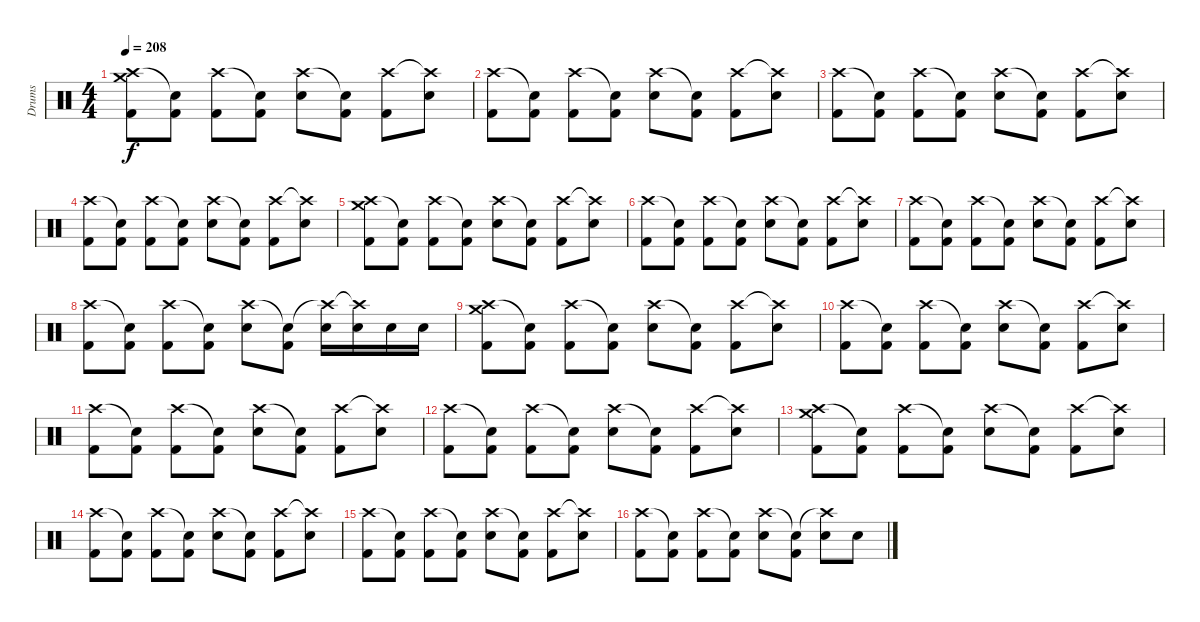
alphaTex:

\track ("Drums" "Drums") {instrument percussion}
\staff {score}
\articulation defaults
\ts (4 4)
\tempo 208
\clef neutral
\ks c
("Crash high (hit)" "Crash medium (hit)" "Kick (hit) 2").8{dy f} ("Snare (hit)"{t} "Kick (hit) 2").8 ("Crash high (hit)" "Kick (hit) 2").8 ("Snare (hit)"{t} "Kick (hit) 2").8 ("Crash high (hit)" "Electric Snare (hit)").8 ("Snare (hit)"{t} "Kick (hit) 2").8 ("Crash high (hit)" "Kick (hit) 2").8 ("Crash high (hit)"{t} "Electric Snare (hit)").8 |
("Crash high (hit)" "Kick (hit) 2").8 ("Snare (hit)"{t} "Kick (hit) 2").8 ("Crash high (hit)" "Kick (hit) 2").8 ("Snare (hit)"{t} "Kick (hit) 2").8 ("Crash high (hit)" "Electric Snare (hit)").8 ("Snare (hit)"{t} "Kick (hit) 2").8 ("Crash high (hit)" "Kick (hit) 2").8 ("Crash high (hit)"{t} "Electric Snare (hit)").8 |
("Crash high (hit)" "Kick (hit) 2").8 ("Snare (hit)"{t} "Kick (hit) 2").8 ("Crash high (hit)" "Kick (hit) 2").8 ("Snare (hit)"{t} "Kick (hit) 2").8 ("Crash high (hit)" "Electric Snare (hit)").8 ("Snare (hit)"{t} "Kick (hit) 2").8 ("Crash high (hit)" "Kick (hit) 2").8 ("Crash high (hit)"{t} "Electric Snare (hit)").8 |
("Crash high (hit)" "Kick (hit) 2").8 ("Snare (hit)"{t} "Kick (hit) 2").8 ("Crash high (hit)" "Kick (hit) 2").8 ("Snare (hit)"{t} "Kick (hit) 2").8 ("Crash high (hit)" "Electric Snare (hit)").8 ("Snare (hit)"{t} "Kick (hit) 2").8 ("Crash high (hit)" "Kick (hit) 2").8 ("Crash high (hit)"{t} "Electric Snare (hit)").8 |
("Crash high (hit)" "Crash medium (hit)" "Kick (hit) 2").8 ("Snare (hit)"{t} "Kick (hit) 2").8 ("Crash high (hit)" "Kick (hit) 2").8 ("Snare (hit)"{t} "Kick (hit) 2").8 ("Crash high (hit)" "Electric Snare (hit)").8 ("Snare (hit)"{t} "Kick (hit) 2").8 ("Crash high (hit)" "Kick (hit) 2").8 ("Crash high (hit)"{t} "Electric Snare (hit)").8 |
("Crash high (hit)" "Kick (hit) 2").8 ("Snare (hit)"{t} "Kick (hit) 2").8 ("Crash high (hit)" "Kick (hit) 2").8 ("Snare (hit)"{t} "Kick (hit) 2").8 ("Crash high (hit)" "Electric Snare (hit)").8 ("Snare (hit)"{t} "Kick (hit) 2").8 ("Crash high (hit)" "Kick (hit) 2").8 ("Crash high (hit)"{t} "Electric Snare (hit)").8 |
("Crash high (hit)" "Kick (hit) 2").8 ("Snare (hit)"{t} "Kick (hit) 2").8 ("Crash high (hit)" "Kick (hit) 2").8 ("Snare (hit)"{t} "Kick (hit) 2").8 ("Crash high (hit)" "Electric Snare (hit)").8 ("Snare (hit)"{t} "Kick (hit) 2").8 ("Crash high (hit)" "Kick (hit) 2").8 ("Crash high (hit)"{t} "Electric Snare (hit)").8 |
("Crash high (hit)" "Kick (hit) 2").8 ("Snare (hit)"{t} "Kick (hit) 2").8 ("Crash high (hit)" "Kick (hit) 2").8 ("Snare (hit)"{t} "Kick (hit) 2").8 ("Crash high (hit)" "Electric Snare (hit)").8 ("Snare (hit)"{t} "Kick (hit) 2").8 ("Crash high (hit)"{t} "Electric Snare (hit)").16 ("Crash high (hit)"{t} "Electric Snare (hit)").16 "Electric Snare (hit)".16 "Electric Snare (hit)".16 |
("Crash high (hit)" "Crash medium (hit)" "Kick (hit) 2").8 ("Snare (hit)"{t} "Kick (hit) 2").8 ("Crash high (hit)" "Kick (hit) 2").8 ("Snare (hit)"{t} "Kick (hit) 2").8 ("Crash high (hit)" "Electric Snare (hit)").8 ("Snare (hit)"{t} "Kick (hit) 2").8 ("Crash high (hit)" "Kick (hit) 2").8 ("Crash high (hit)"{t} "Electric Snare (hit)").8 |
("Crash high (hit)" "Kick (hit) 2").8 ("Snare (hit)"{t} "Kick (hit) 2").8 ("Crash high (hit)" "Kick (hit) 2").8 ("Snare (hit)"{t} "Kick (hit) 2").8 ("Crash high (hit)" "Electric Snare (hit)").8 ("Snare (hit)"{t} "Kick (hit) 2").8 ("Crash high (hit)" "Kick (hit) 2").8 ("Crash high (hit)"{t} "Electric Snare (hit)").8 |
("Crash high (hit)" "Kick (hit) 2").8 ("Snare (hit)"{t} "Kick (hit) 2").8 ("Crash high (hit)" "Kick (hit) 2").8 ("Snare (hit)"{t} "Kick (hit) 2").8 ("Crash high (hit)" "Electric Snare (hit)").8 ("Snare (hit)"{t} "Kick (hit) 2").8 ("Crash high (hit)" "Kick (hit) 2").8 ("Crash high (hit)"{t} "Electric Snare (hit)").8 |
("Crash high (hit)" "Kick (hit) 2").8 ("Snare (hit)"{t} "Kick (hit) 2").8 ("Crash high (hit)" "Kick (hit) 2").8 ("Snare (hit)"{t} "Kick (hit) 2").8 ("Crash high (hit)" "Electric Snare (hit)").8 ("Snare (hit)"{t} "Kick (hit) 2").8 ("Crash high (hit)" "Kick (hit) 2").8 ("Crash high (hit)"{t} "Electric Snare (hit)").8 |
("Crash high (hit)" "Crash medium (hit)" "Kick (hit) 2").8 ("Snare (hit)"{t} "Kick (hit) 2").8 ("Crash high (hit)" "Kick (hit) 2").8 ("Snare (hit)"{t} "Kick (hit) 2").8 ("Crash high (hit)" "Electric Snare (hit)").8 ("Snare (hit)"{t} "Kick (hit) 2").8 ("Crash high (hit)" "Kick (hit) 2").8 ("Crash high (hit)"{t} "Electric Snare (hit)").8 |
("Crash high (hit)" "Kick (hit) 2").8 ("Snare (hit)"{t} "Kick (hit) 2").8 ("Crash high (hit)" "Kick (hit) 2").8 ("Snare (hit)"{t} "Kick (hit) 2").8 ("Crash high (hit)" "Electric Snare (hit)").8 ("Snare (hit)"{t} "Kick (hit) 2").8 ("Crash high (hit)" "Kick (hit) 2").8 ("Crash high (hit)"{t} "Electric Snare (hit)").8 |
("Crash high (hit)" "Kick (hit) 2").8 ("Snare (hit)"{t} "Kick (hit) 2").8 ("Crash high (hit)" "Kick (hit) 2").8 ("Snare (hit)"{t} "Kick (hit) 2").8 ("Crash high (hit)" "Electric Snare (hit)").8 ("Snare (hit)"{t} "Kick (hit) 2").8 ("Crash high (hit)" "Kick (hit) 2").8 ("Crash high (hit)"{t} "Electric Snare (hit)").8 |
("Crash high (hit)" "Kick (hit) 2").8 ("Snare (hit)"{t} "Kick (hit) 2").8 ("Crash high (hit)" "Kick (hit) 2").8 ("Snare (hit)"{t} "Kick (hit) 2").8 ("Crash high (hit)" "Electric Snare (hit)").8 ("Snare (hit)"{t} "Kick (hit) 2").8 ("Crash high (hit)"{t} "Electric Snare (hit)").8 "Electric Snare (hit)".8
